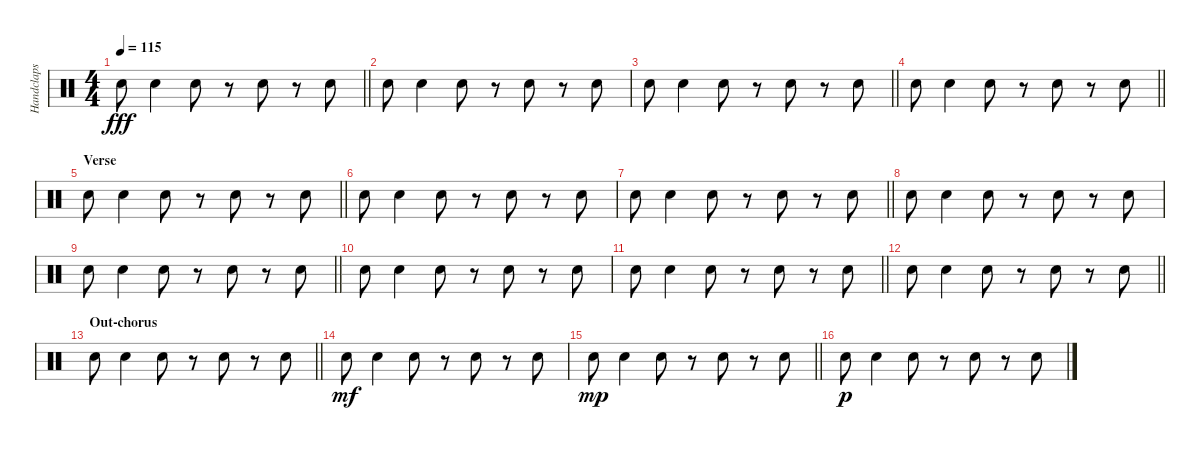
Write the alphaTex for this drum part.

\track ("Handclaps" "Handclaps") {instrument percussion}
\staff {score}
\articulation defaults
\ts (4 4)
\tempo 115
\clef neutral
\barLineRight lightlight
\ks c "Hand Clap (hit)".8{dy fff} "Hand Clap (hit)".4 "Hand Clap (hit)".8
r.8 "Hand Clap (hit)".8 r.8 "Hand Clap (hit)".8 |
"Hand Clap (hit)".8 "Hand Clap (hit)".4 "Hand Clap (hit)".8 r.8 "Hand Clap (hit)".8 r.8 "Hand Clap (hit)".8 |
\barLineRight lightlight "Hand Clap (hit)".8 "Hand Clap (hit)".4 "Hand Clap (hit)".8
r.8 "Hand Clap (hit)".8 r.8 "Hand Clap (hit)".8 |
\barLineRight lightlight "Hand Clap (hit)".8 "Hand Clap (hit)".4 "Hand Clap (hit)".8
r.8 "Hand Clap (hit)".8 r.8 "Hand Clap (hit)".8 |
\section ("" "Verse")
\barLineRight lightlight "Hand Clap (hit)".8 "Hand Clap (hit)".4 "Hand Clap (hit)".8
r.8 "Hand Clap (hit)".8 r.8 "Hand Clap (hit)".8 |
"Hand Clap (hit)".8 "Hand Clap (hit)".4 "Hand Clap (hit)".8 r.8 "Hand Clap (hit)".8 r.8 "Hand Clap (hit)".8 |
\barLineRight lightlight "Hand Clap (hit)".8 "Hand Clap (hit)".4 "Hand Clap (hit)".8
r.8 "Hand Clap (hit)".8 r.8 "Hand Clap (hit)".8 |
"Hand Clap (hit)".8 "Hand Clap (hit)".4 "Hand Clap (hit)".8 r.8 "Hand Clap (hit)".8 r.8 "Hand Clap (hit)".8 |
\barLineRight lightlight "Hand Clap (hit)".8 "Hand Clap (hit)".4 "Hand Clap (hit)".8
r.8 "Hand Clap (hit)".8 r.8 "Hand Clap (hit)".8 |
"Hand Clap (hit)".8 "Hand Clap (hit)".4 "Hand Clap (hit)".8 r.8 "Hand Clap (hit)".8 r.8 "Hand Clap (hit)".8 |
\barLineRight lightlight "Hand Clap (hit)".8 "Hand Clap (hit)".4 "Hand Clap (hit)".8
r.8 "Hand Clap (hit)".8 r.8 "Hand Clap (hit)".8 |
\barLineRight lightlight "Hand Clap (hit)".8 "Hand Clap (hit)".4 "Hand Clap (hit)".8
r.8 "Hand Clap (hit)".8 r.8 "Hand Clap (hit)".8 |
\section ("" "Out-chorus")
\barLineRight lightlight "Hand Clap (hit)".8 "Hand Clap (hit)".4 "Hand Clap (hit)".8
r.8 "Hand Clap (hit)".8 r.8 "Hand Clap (hit)".8 |
"Hand Clap (hit)".8{dy mf} "Hand Clap (hit)".4 "Hand Clap (hit)".8 r.8 "Hand Clap (hit)".8 r.8 "Hand Clap (hit)".8 |
\barLineRight lightlight "Hand Clap (hit)".8{dy mp} "Hand Clap (hit)".4 "Hand Clap (hit)".8
r.8 "Hand Clap (hit)".8 r.8 "Hand Clap (hit)".8 |
"Hand Clap (hit)".8{dy p} "Hand Clap (hit)".4 "Hand Clap (hit)".8 r.8 "Hand Clap (hit)".8 r.8 "Hand Clap (hit)".8
